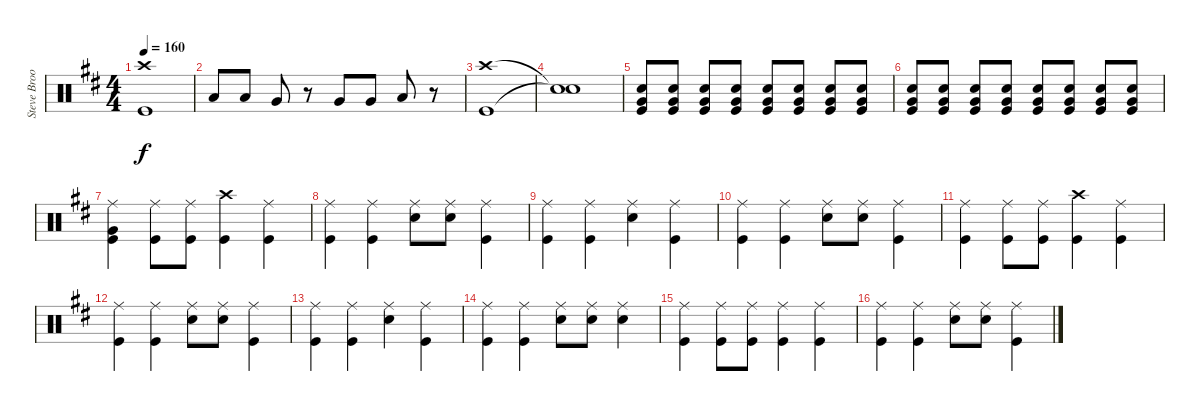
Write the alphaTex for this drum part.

\track ("Steve Brookins Drums" "Steve Broo") {instrument percussion}
\staff {score}
\articulation defaults
\ts (4 4)
\tempo 160
\clef neutral
\ks d
("Crash high (hit)" "Kick (hit)").1{dy f} |
"Low Tom (hit)".8 "Low Tom (hit)".8 "Very Low Tom (hit)".8 r.8 "Very Low Tom (hit)".8 "Very Low Tom (hit)".8 "Low Floor Tom (hit)".8 r.8 |
("Crash high (hit)" "Kick (hit)").1 |
("Snare (hit)"{t} "Snare (hit)"{t}).1 |
("Snare (hit) 2" "Very Low Tom (hit)" "Kick (hit)").8 ("Snare (hit) 2" "Very Low Tom (hit)" "Kick (hit)").8 ("Snare (hit) 2" "Very Low Tom (hit)" "Kick (hit)").8 ("Snare (hit) 2" "Very Low Tom (hit)" "Kick (hit)").8 ("Snare (hit) 2" "Very Low Tom (hit)" "Kick (hit)").8 ("Snare (hit) 2" "Very Low Tom (hit)" "Kick (hit)").8 ("Snare (hit) 2" "Very Low Tom (hit)" "Kick (hit)").8 ("Snare (hit) 2" "Very Low Tom (hit)" "Kick (hit)").8 |
("Snare (hit) 2" "Very Low Tom (hit)" "Kick (hit)").8 ("Snare (hit) 2" "Very Low Tom (hit)" "Kick (hit)").8 ("Snare (hit) 2" "Very Low Tom (hit)" "Kick (hit)").8 ("Snare (hit) 2" "Very Low Tom (hit)" "Kick (hit)").8 ("Snare (hit) 2" "Very Low Tom (hit)" "Kick (hit)").8 ("Snare (hit) 2" "Very Low Tom (hit)" "Kick (hit)").8 ("Snare (hit) 2" "Very Low Tom (hit)" "Kick (hit)").8 ("Snare (hit) 2" "Very Low Tom (hit)" "Kick (hit)").8 |
("Ride (middle)" "Very Low Tom (hit)" "Kick (hit)").4{volume 13} ("Ride (middle)" "Kick (hit)").8 ("Ride (middle)" "Kick (hit)").8 ("Crash high (hit)" "Kick (hit)").4 ("Ride (middle)" "Kick (hit)").4 |
("Ride (middle)" "Kick (hit)").4 ("Ride (middle)" "Kick (hit)").4 ("Ride (middle)" "Snare (hit) 2").8 ("Ride (middle)" "Snare (hit) 2").8 ("Ride (middle)" "Kick (hit)").4 |
("Ride (middle)" "Kick (hit)").4 ("Ride (middle)" "Kick (hit)").4 ("Ride (middle)" "Snare (hit) 2").4 ("Ride (middle)" "Kick (hit)").4 |
("Ride (middle)" "Kick (hit)").4 ("Ride (middle)" "Kick (hit)").4 ("Ride (middle)" "Snare (hit) 2").8 ("Ride (middle)" "Snare (hit) 2").8 ("Ride (middle)" "Kick (hit)").4 |
("Ride (middle)" "Kick (hit)").4 ("Ride (middle)" "Kick (hit)").8 ("Ride (middle)" "Kick (hit)").8 ("Crash high (hit)" "Kick (hit)").4 ("Ride (middle)" "Kick (hit)").4 |
("Ride (middle)" "Kick (hit)").4 ("Ride (middle)" "Kick (hit)").4 ("Ride (middle)" "Snare (hit) 2").8 ("Ride (middle)" "Snare (hit) 2").8 ("Ride (middle)" "Kick (hit)").4 |
("Ride (middle)" "Kick (hit)").4 ("Ride (middle)" "Kick (hit)").4 ("Ride (middle)" "Snare (hit) 2").4 ("Ride (middle)" "Kick (hit)").4 |
("Ride (middle)" "Kick (hit)").4 ("Ride (middle)" "Kick (hit)").4 ("Ride (middle)" "Snare (hit) 2").8 ("Ride (middle)" "Snare (hit) 2").8 ("Ride (middle)" "Snare (hit) 2").4 |
("Ride (middle)" "Kick (hit)").4 ("Ride (middle)" "Kick (hit)").8 ("Ride (middle)" "Kick (hit)").8 ("Ride (middle)" "Kick (hit)").4 ("Ride (middle)" "Kick (hit)").4 |
("Ride (middle)" "Kick (hit)").4 ("Ride (middle)" "Kick (hit)").4 ("Ride (middle)" "Snare (hit) 2").8 ("Ride (middle)" "Snare (hit) 2").8 ("Ride (middle)" "Kick (hit)").4
